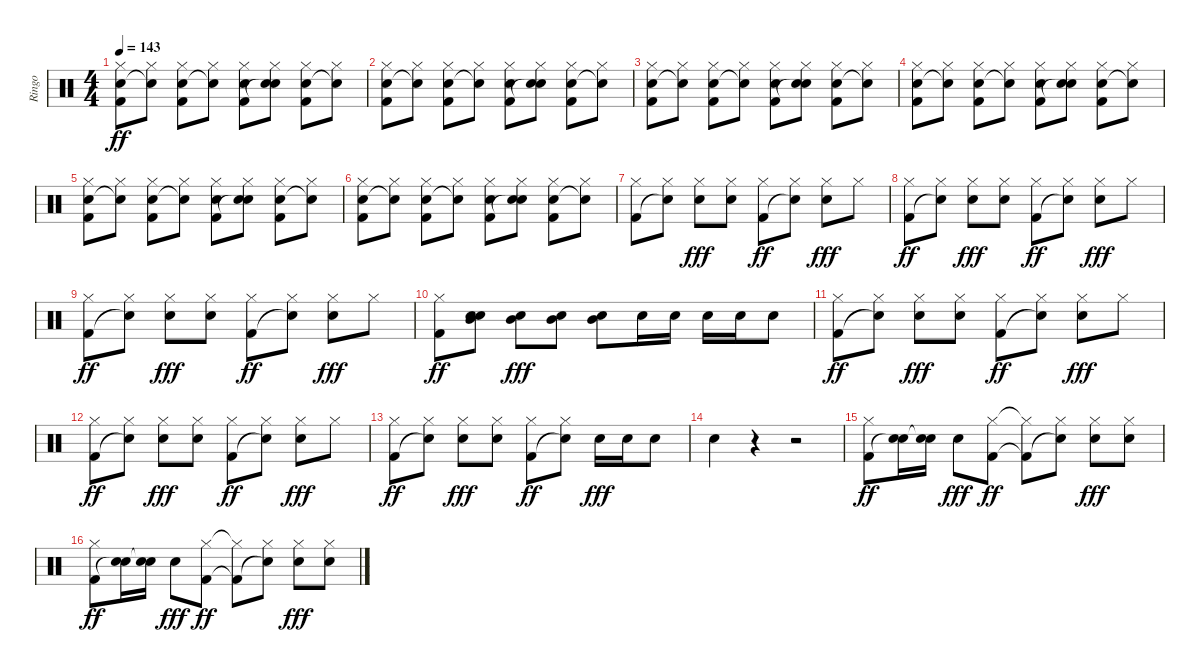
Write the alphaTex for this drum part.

\track ("Ringo" "Ringo") {instrument percussion}
\staff {score}
\articulation defaults
\ts (4 4)
\tempo 143
\clef neutral
\ks c
("Hi-Hat (closed)" "Snare (hit) 2" "Kick (hit) 2").8{dy ff} ("Hi-Hat (closed)" "Snare (hit)"{t}).8 ("Hi-Hat (closed)" "Snare (hit) 2" "Kick (hit) 2").8 ("Hi-Hat (closed)" "Snare (hit)"{t}).8 ("Hi-Hat (closed)" "Snare (hit) 2" "Kick (hit) 2").8 ("Hi-Hat (closed)" "Snare (hit) 2" "Snare (hit)"{t}).8 ("Hi-Hat (closed)" "Snare (hit) 2" "Kick (hit) 2").8 ("Hi-Hat (closed)" "Snare (hit)"{t}).8 |
("Hi-Hat (closed)" "Snare (hit) 2" "Kick (hit) 2").8 ("Hi-Hat (closed)" "Snare (hit)"{t}).8 ("Hi-Hat (closed)" "Snare (hit) 2" "Kick (hit) 2").8 ("Hi-Hat (closed)" "Snare (hit)"{t}).8 ("Hi-Hat (closed)" "Snare (hit) 2" "Kick (hit) 2").8 ("Hi-Hat (closed)" "Snare (hit) 2" "Snare (hit)"{t}).8 ("Hi-Hat (closed)" "Snare (hit) 2" "Kick (hit) 2").8 ("Hi-Hat (closed)" "Snare (hit)"{t}).8 |
("Hi-Hat (closed)" "Snare (hit) 2" "Kick (hit) 2").8 ("Hi-Hat (closed)" "Snare (hit)"{t}).8 ("Hi-Hat (closed)" "Snare (hit) 2" "Kick (hit) 2").8 ("Hi-Hat (closed)" "Snare (hit)"{t}).8 ("Hi-Hat (closed)" "Snare (hit) 2" "Kick (hit) 2").8 ("Hi-Hat (closed)" "Snare (hit) 2" "Snare (hit)"{t}).8 ("Hi-Hat (closed)" "Snare (hit) 2" "Kick (hit) 2").8 ("Hi-Hat (closed)" "Snare (hit)"{t}).8 |
("Hi-Hat (closed)" "Snare (hit) 2" "Kick (hit) 2").8 ("Hi-Hat (closed)" "Snare (hit)"{t}).8 ("Hi-Hat (closed)" "Snare (hit) 2" "Kick (hit) 2").8 ("Hi-Hat (closed)" "Snare (hit)"{t}).8 ("Hi-Hat (closed)" "Snare (hit) 2" "Kick (hit) 2").8 ("Hi-Hat (closed)" "Snare (hit) 2" "Snare (hit)"{t}).8 ("Hi-Hat (closed)" "Snare (hit) 2" "Kick (hit) 2").8 ("Hi-Hat (closed)" "Snare (hit)"{t}).8 |
("Hi-Hat (closed)" "Snare (hit) 2" "Kick (hit) 2").8 ("Hi-Hat (closed)" "Snare (hit)"{t}).8 ("Hi-Hat (closed)" "Snare (hit) 2" "Kick (hit) 2").8 ("Hi-Hat (closed)" "Snare (hit)"{t}).8 ("Hi-Hat (closed)" "Snare (hit) 2" "Kick (hit) 2").8 ("Hi-Hat (closed)" "Snare (hit) 2" "Snare (hit)"{t}).8 ("Hi-Hat (closed)" "Snare (hit) 2" "Kick (hit) 2").8 ("Hi-Hat (closed)" "Snare (hit)"{t}).8 |
("Hi-Hat (closed)" "Snare (hit) 2" "Kick (hit) 2").8 ("Hi-Hat (closed)" "Snare (hit)"{t}).8 ("Hi-Hat (closed)" "Snare (hit) 2" "Kick (hit) 2").8 ("Hi-Hat (closed)" "Snare (hit)"{t}).8 ("Hi-Hat (closed)" "Snare (hit) 2" "Kick (hit) 2").8 ("Hi-Hat (closed)" "Snare (hit) 2" "Snare (hit)"{t}).8 ("Hi-Hat (closed)" "Snare (hit) 2" "Kick (hit) 2").8 ("Hi-Hat (closed)" "Snare (hit)"{t}).8 |
("Hi-Hat (closed)" "Kick (hit) 2").8 ("Hi-Hat (closed)" "Snare (hit)"{t}).8 ("Hi-Hat (closed)" "Snare (hit) 2").8{dy fff} ("Hi-Hat (closed)" "Snare (hit) 2").8 ("Hi-Hat (closed)" "Kick (hit) 2").8{dy ff} ("Hi-Hat (closed)" "Snare (hit)"{t}).8 ("Hi-Hat (closed)" "Snare (hit) 2").8{dy fff} "Hi-Hat (closed)".8 |
("Hi-Hat (closed)" "Kick (hit) 2").8{dy ff} ("Hi-Hat (closed)" "Snare (hit)"{t}).8 ("Hi-Hat (closed)" "Snare (hit) 2").8{dy fff} ("Hi-Hat (closed)" "Snare (hit) 2").8 ("Hi-Hat (closed)" "Kick (hit) 2").8{dy ff} ("Hi-Hat (closed)" "Snare (hit)"{t}).8 ("Hi-Hat (closed)" "Snare (hit) 2").8{dy fff} "Hi-Hat (closed)".8 |
("Hi-Hat (closed)" "Kick (hit) 2").8{dy ff} ("Hi-Hat (closed)" "Snare (hit)"{t}).8 ("Hi-Hat (closed)" "Snare (hit) 2").8{dy fff} ("Hi-Hat (closed)" "Snare (hit) 2").8 ("Hi-Hat (closed)" "Kick (hit) 2").8{dy ff} ("Hi-Hat (closed)" "Snare (hit)"{t}).8 ("Hi-Hat (closed)" "Snare (hit) 2").8{dy fff} "Hi-Hat (closed)".8 |
("Hi-Hat (closed)" "Kick (hit) 2").8{dy ff} ("Mid Tom (hit)" "Snare (hit) 2" "Snare (hit)").8 ("Mid Tom (hit)" "Snare (hit) 2").8{dy fff} ("Mid Tom (hit)" "Snare (hit) 2").8 ("Mid Tom (hit)" "Snare (hit) 2").8 "Snare (hit) 2".16 "Snare (hit) 2".16 "Snare (hit) 2".16 "Snare (hit) 2".16 "Snare (hit) 2".8 |
("Hi-Hat (closed)" "Kick (hit) 2").8{dy ff} ("Hi-Hat (closed)" "Snare (hit)"{t}).8 ("Hi-Hat (closed)" "Snare (hit) 2").8{dy fff} ("Hi-Hat (closed)" "Snare (hit) 2").8 ("Hi-Hat (closed)" "Kick (hit) 2").8{dy ff} ("Hi-Hat (closed)" "Snare (hit)"{t}).8 ("Hi-Hat (closed)" "Snare (hit) 2").8{dy fff} "Hi-Hat (closed)".8 |
("Hi-Hat (closed)" "Kick (hit) 2").8{dy ff} ("Hi-Hat (closed)" "Snare (hit)"{t}).8 ("Hi-Hat (closed)" "Snare (hit) 2").8{dy fff} ("Hi-Hat (closed)" "Snare (hit) 2").8 ("Hi-Hat (closed)" "Kick (hit) 2").8{dy ff} ("Hi-Hat (closed)" "Snare (hit)"{t}).8 ("Hi-Hat (closed)" "Snare (hit) 2").8{dy fff} "Hi-Hat (closed)".8 |
("Hi-Hat (closed)" "Kick (hit) 2").8{dy ff} ("Hi-Hat (closed)" "Snare (hit)"{t}).8 ("Hi-Hat (closed)" "Snare (hit) 2").8{dy fff} ("Hi-Hat (closed)" "Snare (hit) 2").8 ("Hi-Hat (closed)" "Kick (hit) 2").8{dy ff} ("Hi-Hat (closed)" "Snare (hit)"{t}).8 "Snare (hit) 2".16{dy fff} "Snare (hit) 2".16 "Snare (hit) 2".8 |
"Snare (hit) 2".4 r.4 r.2 |
("Hi-Hat (closed)" "Kick (hit) 2").8{dy ff} ("Snare (hit) 2" "Snare (hit)"{t}).16 ("Snare (hit) 2" "Snare (hit)"{t}).16 "Snare (hit) 2".8{dy fff} ("Hi-Hat (closed)" "Kick (hit) 2").8{dy ff} ("Hi-Hat (closed)"{t} "Kick (hit) 2"{t}).8 ("Hi-Hat (closed)" "Snare (hit)"{t}).8 ("Hi-Hat (closed)" "Snare (hit) 2").8{dy fff} ("Hi-Hat (closed)" "Snare (hit) 2").8 |
("Hi-Hat (closed)" "Kick (hit) 2").8{dy ff} ("Snare (hit) 2" "Snare (hit)"{t}).16 ("Snare (hit) 2" "Snare (hit)"{t}).16 "Snare (hit) 2".8{dy fff} ("Hi-Hat (closed)" "Kick (hit) 2").8{dy ff} ("Hi-Hat (closed)"{t} "Kick (hit) 2"{t}).8 ("Hi-Hat (closed)" "Snare (hit)"{t}).8 ("Hi-Hat (closed)" "Snare (hit) 2").8{dy fff} ("Hi-Hat (closed)" "Snare (hit) 2").8
